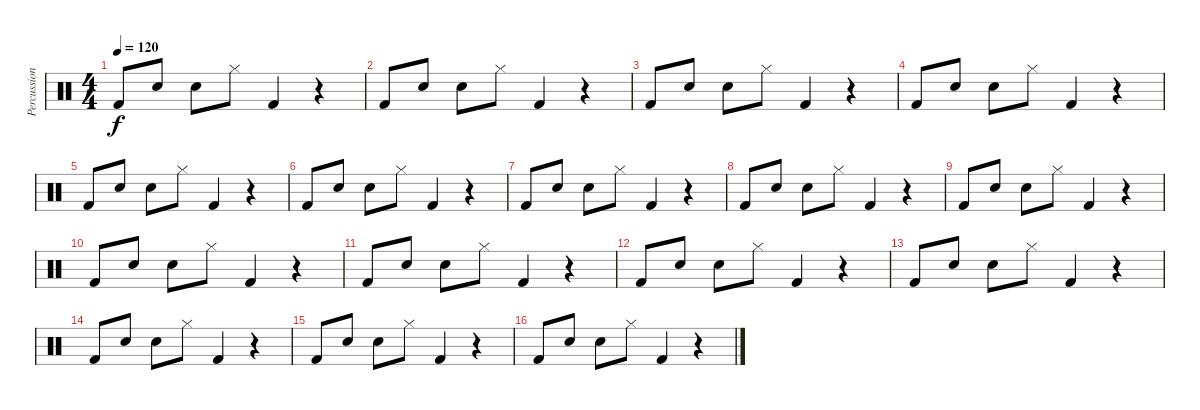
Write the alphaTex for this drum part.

\track ("Percussion" "Percussion") {instrument percussion}
\staff {score}
\articulation defaults
\ts (4 4)
\tempo 120
\clef neutral
\ks c "Kick (hit) 2".8{dy f} "Snare (hit) 2".8 "Electric Snare (hit)".8 "Hi-Hat (closed)".8 "Kick (hit) 2".4
r.4 |
"Kick (hit) 2".8 "Snare (hit) 2".8 "Electric Snare (hit)".8 "Hi-Hat (closed)".8 "Kick (hit) 2".4 r.4 |
"Kick (hit) 2".8 "Snare (hit) 2".8 "Electric Snare (hit)".8 "Hi-Hat (closed)".8 "Kick (hit) 2".4 r.4 |
"Kick (hit) 2".8 "Snare (hit) 2".8 "Electric Snare (hit)".8 "Hi-Hat (closed)".8 "Kick (hit) 2".4 r.4 |
"Kick (hit) 2".8 "Snare (hit) 2".8 "Electric Snare (hit)".8 "Hi-Hat (closed)".8 "Kick (hit) 2".4 r.4 |
"Kick (hit) 2".8 "Snare (hit) 2".8 "Electric Snare (hit)".8 "Hi-Hat (closed)".8 "Kick (hit) 2".4 r.4 |
"Kick (hit) 2".8 "Snare (hit) 2".8 "Electric Snare (hit)".8 "Hi-Hat (closed)".8 "Kick (hit) 2".4 r.4 |
"Kick (hit) 2".8 "Snare (hit) 2".8 "Electric Snare (hit)".8 "Hi-Hat (closed)".8 "Kick (hit) 2".4 r.4 |
"Kick (hit) 2".8 "Snare (hit) 2".8 "Electric Snare (hit)".8 "Hi-Hat (closed)".8 "Kick (hit) 2".4 r.4 |
"Kick (hit) 2".8 "Snare (hit) 2".8 "Electric Snare (hit)".8 "Hi-Hat (closed)".8 "Kick (hit) 2".4 r.4 |
"Kick (hit) 2".8 "Snare (hit) 2".8 "Electric Snare (hit)".8 "Hi-Hat (closed)".8 "Kick (hit) 2".4 r.4 |
"Kick (hit) 2".8 "Snare (hit) 2".8 "Electric Snare (hit)".8 "Hi-Hat (closed)".8 "Kick (hit) 2".4 r.4 |
"Kick (hit) 2".8 "Snare (hit) 2".8 "Electric Snare (hit)".8 "Hi-Hat (closed)".8 "Kick (hit) 2".4 r.4 |
"Kick (hit) 2".8 "Snare (hit) 2".8 "Electric Snare (hit)".8 "Hi-Hat (closed)".8 "Kick (hit) 2".4 r.4 |
"Kick (hit) 2".8 "Snare (hit) 2".8 "Electric Snare (hit)".8 "Hi-Hat (closed)".8 "Kick (hit) 2".4 r.4 |
"Kick (hit) 2".8 "Snare (hit) 2".8 "Electric Snare (hit)".8 "Hi-Hat (closed)".8 "Kick (hit) 2".4 r.4
